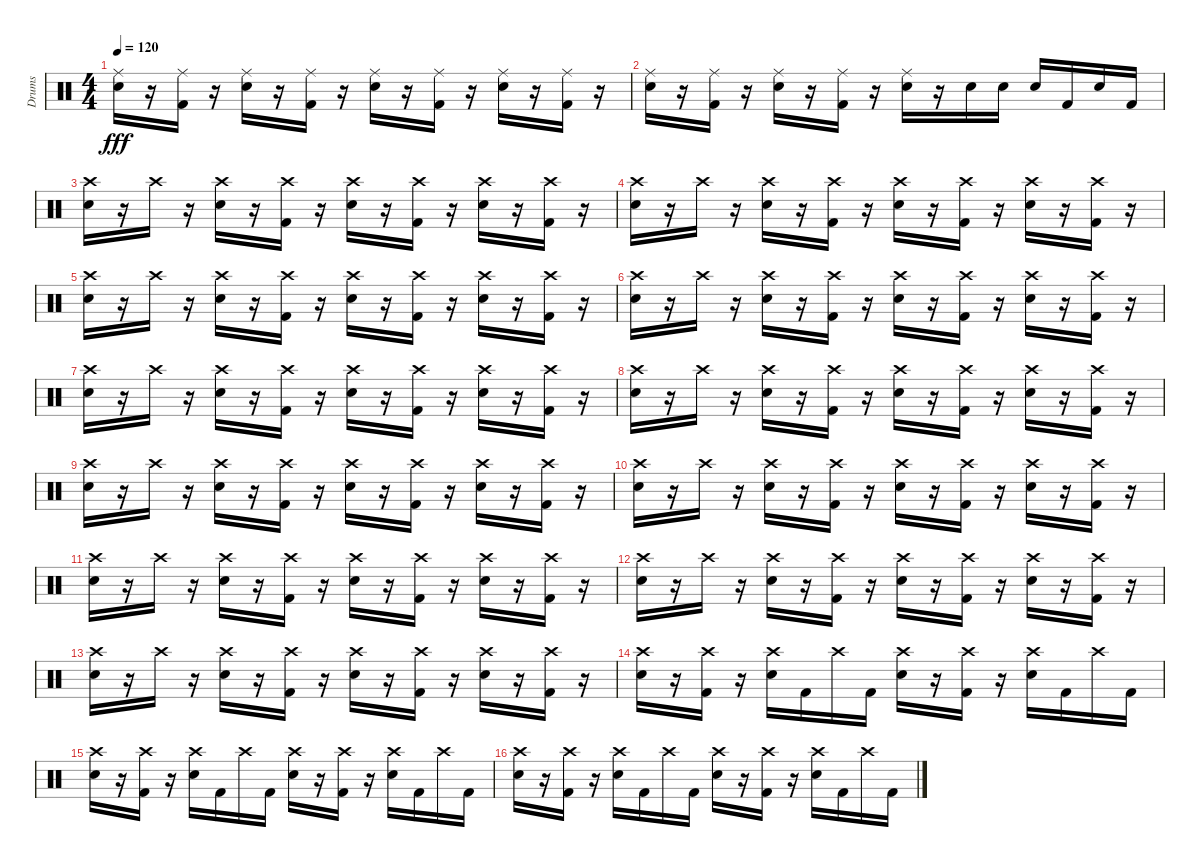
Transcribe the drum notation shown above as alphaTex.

\track ("Drums" "Drums") {instrument percussion}
\staff {score}
\articulation defaults
\ts (4 4)
\tempo 120
\clef neutral
\ks c
("Snare (hit) 2" "Ride (middle)").16{dy fff} r.16 ("Kick (hit) 2" "Ride (middle)").16 r.16 ("Snare (hit) 2" "Ride (middle)").16 r.16 ("Kick (hit) 2" "Ride (middle)").16 r.16 ("Snare (hit) 2" "Ride (middle)").16 r.16 ("Kick (hit) 2" "Ride (middle)").16 r.16 ("Snare (hit) 2" "Ride (middle)").16 r.16 ("Kick (hit) 2" "Ride (middle)").16 r.16 |
("Snare (hit) 2" "Ride (middle)").16 r.16 ("Kick (hit) 2" "Ride (middle)").16 r.16 ("Snare (hit) 2" "Ride (middle)").16 r.16 ("Kick (hit) 2" "Ride (middle)").16 r.16 ("Snare (hit) 2" "Ride (middle)").16 r.16 "Snare (hit) 2".16 "Snare (hit) 2".16 "Snare (hit) 2".16 "Kick (hit) 2".16 "Snare (hit) 2".16 "Kick (hit) 2".16 |
("Snare (hit) 2" "Crash high (hit)").16 r.16 "Crash high (hit)".16 r.16 ("Snare (hit) 2" "Crash high (hit)").16 r.16 ("Kick (hit) 2" "Crash high (hit)").16 r.16 ("Snare (hit) 2" "Crash high (hit)").16 r.16 ("Kick (hit) 2" "Crash high (hit)").16 r.16 ("Snare (hit) 2" "Crash high (hit)").16 r.16 ("Kick (hit) 2" "Crash high (hit)").16 r.16 |
("Snare (hit) 2" "Crash high (hit)").16 r.16 "Crash high (hit)".16 r.16 ("Snare (hit) 2" "Crash high (hit)").16 r.16 ("Kick (hit) 2" "Crash high (hit)").16 r.16 ("Snare (hit) 2" "Crash high (hit)").16 r.16 ("Kick (hit) 2" "Crash high (hit)").16 r.16 ("Snare (hit) 2" "Crash high (hit)").16 r.16 ("Kick (hit) 2" "Crash high (hit)").16 r.16 |
("Snare (hit) 2" "Crash high (hit)").16 r.16 "Crash high (hit)".16 r.16 ("Snare (hit) 2" "Crash high (hit)").16 r.16 ("Kick (hit) 2" "Crash high (hit)").16 r.16 ("Snare (hit) 2" "Crash high (hit)").16 r.16 ("Kick (hit) 2" "Crash high (hit)").16 r.16 ("Snare (hit) 2" "Crash high (hit)").16 r.16 ("Kick (hit) 2" "Crash high (hit)").16 r.16 |
("Snare (hit) 2" "Crash high (hit)").16 r.16 "Crash high (hit)".16 r.16 ("Snare (hit) 2" "Crash high (hit)").16 r.16 ("Kick (hit) 2" "Crash high (hit)").16 r.16 ("Snare (hit) 2" "Crash high (hit)").16 r.16 ("Kick (hit) 2" "Crash high (hit)").16 r.16 ("Snare (hit) 2" "Crash high (hit)").16 r.16 ("Kick (hit) 2" "Crash high (hit)").16 r.16 |
("Snare (hit) 2" "Crash high (hit)").16 r.16 "Crash high (hit)".16 r.16 ("Snare (hit) 2" "Crash high (hit)").16 r.16 ("Kick (hit) 2" "Crash high (hit)").16 r.16 ("Snare (hit) 2" "Crash high (hit)").16 r.16 ("Kick (hit) 2" "Crash high (hit)").16 r.16 ("Snare (hit) 2" "Crash high (hit)").16 r.16 ("Kick (hit) 2" "Crash high (hit)").16 r.16 |
("Snare (hit) 2" "Crash high (hit)").16 r.16 "Crash high (hit)".16 r.16 ("Snare (hit) 2" "Crash high (hit)").16 r.16 ("Kick (hit) 2" "Crash high (hit)").16 r.16 ("Snare (hit) 2" "Crash high (hit)").16 r.16 ("Kick (hit) 2" "Crash high (hit)").16 r.16 ("Snare (hit) 2" "Crash high (hit)").16 r.16 ("Kick (hit) 2" "Crash high (hit)").16 r.16 |
("Snare (hit) 2" "Crash high (hit)").16 r.16 "Crash high (hit)".16 r.16 ("Snare (hit) 2" "Crash high (hit)").16 r.16 ("Kick (hit) 2" "Crash high (hit)").16 r.16 ("Snare (hit) 2" "Crash high (hit)").16 r.16 ("Kick (hit) 2" "Crash high (hit)").16 r.16 ("Snare (hit) 2" "Crash high (hit)").16 r.16 ("Kick (hit) 2" "Crash high (hit)").16 r.16 |
("Snare (hit) 2" "Crash high (hit)").16 r.16 "Crash high (hit)".16 r.16 ("Snare (hit) 2" "Crash high (hit)").16 r.16 ("Kick (hit) 2" "Crash high (hit)").16 r.16 ("Snare (hit) 2" "Crash high (hit)").16 r.16 ("Kick (hit) 2" "Crash high (hit)").16 r.16 ("Snare (hit) 2" "Crash high (hit)").16 r.16 ("Kick (hit) 2" "Crash high (hit)").16 r.16 |
("Snare (hit) 2" "Crash high (hit)").16 r.16 "Crash high (hit)".16 r.16 ("Snare (hit) 2" "Crash high (hit)").16 r.16 ("Kick (hit) 2" "Crash high (hit)").16 r.16 ("Snare (hit) 2" "Crash high (hit)").16 r.16 ("Kick (hit) 2" "Crash high (hit)").16 r.16 ("Snare (hit) 2" "Crash high (hit)").16 r.16 ("Kick (hit) 2" "Crash high (hit)").16 r.16 |
("Snare (hit) 2" "Crash high (hit)").16 r.16 "Crash high (hit)".16 r.16 ("Snare (hit) 2" "Crash high (hit)").16 r.16 ("Kick (hit) 2" "Crash high (hit)").16 r.16 ("Snare (hit) 2" "Crash high (hit)").16 r.16 ("Kick (hit) 2" "Crash high (hit)").16 r.16 ("Snare (hit) 2" "Crash high (hit)").16 r.16 ("Kick (hit) 2" "Crash high (hit)").16 r.16 |
("Snare (hit) 2" "Crash high (hit)").16 r.16 "Crash high (hit)".16 r.16 ("Snare (hit) 2" "Crash high (hit)").16 r.16 ("Kick (hit) 2" "Crash high (hit)").16 r.16 ("Snare (hit) 2" "Crash high (hit)").16 r.16 ("Kick (hit) 2" "Crash high (hit)").16 r.16 ("Snare (hit) 2" "Crash high (hit)").16 r.16 ("Kick (hit) 2" "Crash high (hit)").16 r.16 |
("Snare (hit) 2" "Crash high (hit)").16 r.16 ("Kick (hit) 2" "Crash high (hit)").16 r.16 ("Snare (hit) 2" "Crash high (hit)").16 "Kick (hit) 2".16 "Crash high (hit)".16 "Kick (hit) 2".16 ("Snare (hit) 2" "Crash high (hit)").16 r.16 ("Kick (hit) 2" "Crash high (hit)").16 r.16 ("Snare (hit) 2" "Crash high (hit)").16 "Kick (hit) 2".16 "Crash high (hit)".16 "Kick (hit) 2".16 |
("Snare (hit) 2" "Crash high (hit)").16 r.16 ("Kick (hit) 2" "Crash high (hit)").16 r.16 ("Snare (hit) 2" "Crash high (hit)").16 "Kick (hit) 2".16 "Crash high (hit)".16 "Kick (hit) 2".16 ("Snare (hit) 2" "Crash high (hit)").16 r.16 ("Kick (hit) 2" "Crash high (hit)").16 r.16 ("Snare (hit) 2" "Crash high (hit)").16 "Kick (hit) 2".16 "Crash high (hit)".16 "Kick (hit) 2".16 |
("Snare (hit) 2" "Crash high (hit)").16 r.16 ("Kick (hit) 2" "Crash high (hit)").16 r.16 ("Snare (hit) 2" "Crash high (hit)").16 "Kick (hit) 2".16 "Crash high (hit)".16 "Kick (hit) 2".16 ("Snare (hit) 2" "Crash high (hit)").16 r.16 ("Kick (hit) 2" "Crash high (hit)").16 r.16 ("Snare (hit) 2" "Crash high (hit)").16 "Kick (hit) 2".16 "Crash high (hit)".16 "Kick (hit) 2".16
